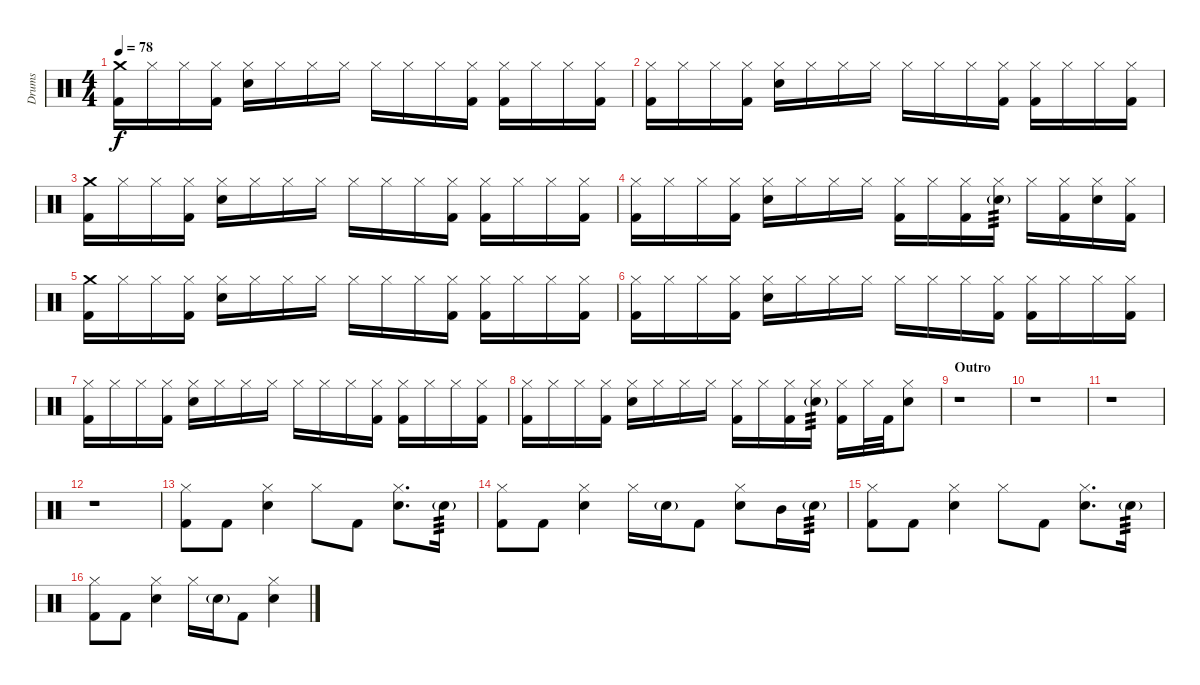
\track ("Drums" "Drums") {instrument percussion}
\staff {score}
\articulation defaults
\ts (4 4)
\tempo 78
\clef neutral
\ks c
("Crash medium (hit)" "Kick (hit) 2").16{dy f} "Hi-Hat (closed)".16 "Hi-Hat (closed)".16 ("Hi-Hat (closed)" "Kick (hit) 2").16 ("Hi-Hat (closed)" "Snare (hit) 2").16 "Hi-Hat (closed)".16 "Hi-Hat (closed)".16 "Hi-Hat (closed)".16 "Hi-Hat (closed)".16 "Hi-Hat (closed)".16 "Hi-Hat (closed)".16 ("Hi-Hat (closed)" "Kick (hit) 2").16 ("Hi-Hat (closed)" "Kick (hit) 2").16 "Hi-Hat (closed)".16 "Hi-Hat (closed)".16 ("Hi-Hat (closed)" "Kick (hit) 2").16 |
("Hi-Hat (closed)" "Kick (hit) 2").16 "Hi-Hat (closed)".16 "Hi-Hat (closed)".16 ("Hi-Hat (closed)" "Kick (hit) 2").16 ("Hi-Hat (closed)" "Snare (hit) 2").16 "Hi-Hat (closed)".16 "Hi-Hat (closed)".16 "Hi-Hat (closed)".16 "Hi-Hat (closed)".16 "Hi-Hat (closed)".16 "Hi-Hat (closed)".16 ("Hi-Hat (closed)" "Kick (hit) 2").16 ("Hi-Hat (closed)" "Kick (hit) 2").16 "Hi-Hat (closed)".16 "Hi-Hat (closed)".16 ("Hi-Hat (closed)" "Kick (hit) 2").16 |
("Crash medium (hit)" "Kick (hit) 2").16 "Hi-Hat (closed)".16 "Hi-Hat (closed)".16 ("Hi-Hat (closed)" "Kick (hit) 2").16 ("Hi-Hat (closed)" "Snare (hit) 2").16 "Hi-Hat (closed)".16 "Hi-Hat (closed)".16 "Hi-Hat (closed)".16 "Hi-Hat (closed)".16 "Hi-Hat (closed)".16 "Hi-Hat (closed)".16 ("Hi-Hat (closed)" "Kick (hit) 2").16 ("Hi-Hat (closed)" "Kick (hit) 2").16 "Hi-Hat (closed)".16 "Hi-Hat (closed)".16 ("Hi-Hat (closed)" "Kick (hit) 2").16 |
("Hi-Hat (closed)" "Kick (hit) 2").16 "Hi-Hat (closed)".16 "Hi-Hat (closed)".16 ("Hi-Hat (closed)" "Kick (hit) 2").16 ("Hi-Hat (closed)" "Snare (hit) 2").16 "Hi-Hat (closed)".16 "Hi-Hat (closed)".16 "Hi-Hat (closed)".16 ("Hi-Hat (closed)" "Kick (hit) 2").16 "Hi-Hat (closed)".16 ("Hi-Hat (closed)" "Kick (hit) 2").16 ("Hi-Hat (closed)" "Snare (hit) 2"{g}).16{tp 3} "Hi-Hat (closed)".16 ("Hi-Hat (closed)" "Kick (hit) 2").16 ("Hi-Hat (closed)" "Snare (hit) 2").16 ("Hi-Hat (closed)" "Kick (hit) 2").16 |
("Crash medium (hit)" "Kick (hit) 2").16 "Hi-Hat (closed)".16 "Hi-Hat (closed)".16 ("Hi-Hat (closed)" "Kick (hit) 2").16 ("Hi-Hat (closed)" "Snare (hit) 2").16 "Hi-Hat (closed)".16 "Hi-Hat (closed)".16 "Hi-Hat (closed)".16 "Hi-Hat (closed)".16 "Hi-Hat (closed)".16 "Hi-Hat (closed)".16 ("Hi-Hat (closed)" "Kick (hit) 2").16 ("Hi-Hat (closed)" "Kick (hit) 2").16 "Hi-Hat (closed)".16 "Hi-Hat (closed)".16 ("Hi-Hat (closed)" "Kick (hit) 2").16 |
("Hi-Hat (closed)" "Kick (hit) 2").16 "Hi-Hat (closed)".16 "Hi-Hat (closed)".16 ("Hi-Hat (closed)" "Kick (hit) 2").16 ("Hi-Hat (closed)" "Snare (hit) 2").16 "Hi-Hat (closed)".16 "Hi-Hat (closed)".16 "Hi-Hat (closed)".16 "Hi-Hat (closed)".16 "Hi-Hat (closed)".16 "Hi-Hat (closed)".16 ("Hi-Hat (closed)" "Kick (hit) 2").16 ("Hi-Hat (closed)" "Kick (hit) 2").16 "Hi-Hat (closed)".16 "Hi-Hat (closed)".16 ("Hi-Hat (closed)" "Kick (hit) 2").16 |
("Hi-Hat (closed)" "Kick (hit) 2").16 "Hi-Hat (closed)".16 "Hi-Hat (closed)".16 ("Hi-Hat (closed)" "Kick (hit) 2").16 ("Hi-Hat (closed)" "Snare (hit) 2").16 "Hi-Hat (closed)".16 "Hi-Hat (closed)".16 "Hi-Hat (closed)".16 "Hi-Hat (closed)".16 "Hi-Hat (closed)".16 "Hi-Hat (closed)".16 ("Hi-Hat (closed)" "Kick (hit) 2").16 ("Hi-Hat (closed)" "Kick (hit) 2").16 "Hi-Hat (closed)".16 "Hi-Hat (closed)".16 ("Hi-Hat (closed)" "Kick (hit) 2").16 |
("Hi-Hat (closed)" "Kick (hit) 2").16 "Hi-Hat (closed)".16 "Hi-Hat (closed)".16 ("Hi-Hat (closed)" "Kick (hit) 2").16 ("Hi-Hat (closed)" "Snare (hit) 2").16 "Hi-Hat (closed)".16 "Hi-Hat (closed)".16 "Hi-Hat (closed)".16 ("Hi-Hat (closed)" "Kick (hit) 2").16 "Hi-Hat (closed)".16 ("Hi-Hat (closed)" "Kick (hit) 2").16 ("Hi-Hat (closed)" "Snare (hit) 2"{g}).16{tp 3} ("Hi-Hat (closed)" "Kick (hit) 2").16 "Hi-Hat (closed)".32 "Kick (hit) 2".32 ("Hi-Hat (closed)" "Snare (hit) 2").8 |
\section ("" "Outro")
r.1 |
r.1 |
r.1 |
r.1 |
("Hi-Hat (closed)" "Kick (hit) 2").8 "Kick (hit) 2".8 ("Hi-Hat (closed)" "Snare (hit) 2").4 "Hi-Hat (closed)".8 "Kick (hit) 2".8 ("Hi-Hat (closed)" "Snare (hit) 2").8{d} "Snare (hit) 2"{g}.16{tp 3} |
("Hi-Hat (closed)" "Kick (hit) 2").8 "Kick (hit) 2".8 ("Hi-Hat (closed)" "Snare (hit) 2").4 "Hi-Hat (closed)".16 "Snare (hit) 2"{g}.16 "Kick (hit) 2".8 ("Hi-Hat (closed)" "Snare (hit) 2").8 "Mid Tom (hit)".16 "Snare (hit) 2"{g}.16{tp 3} |
("Hi-Hat (closed)" "Kick (hit) 2").8 "Kick (hit) 2".8 ("Hi-Hat (closed)" "Snare (hit) 2").4 "Hi-Hat (closed)".8 "Kick (hit) 2".8 ("Hi-Hat (closed)" "Snare (hit) 2").8{d} "Snare (hit) 2"{g}.16{tp 3} |
("Hi-Hat (closed)" "Kick (hit) 2").8 "Kick (hit) 2".8 ("Hi-Hat (closed)" "Snare (hit) 2").4 "Hi-Hat (closed)".16 "Snare (hit) 2"{g}.16 "Kick (hit) 2".8 ("Hi-Hat (closed)" "Snare (hit) 2").4
